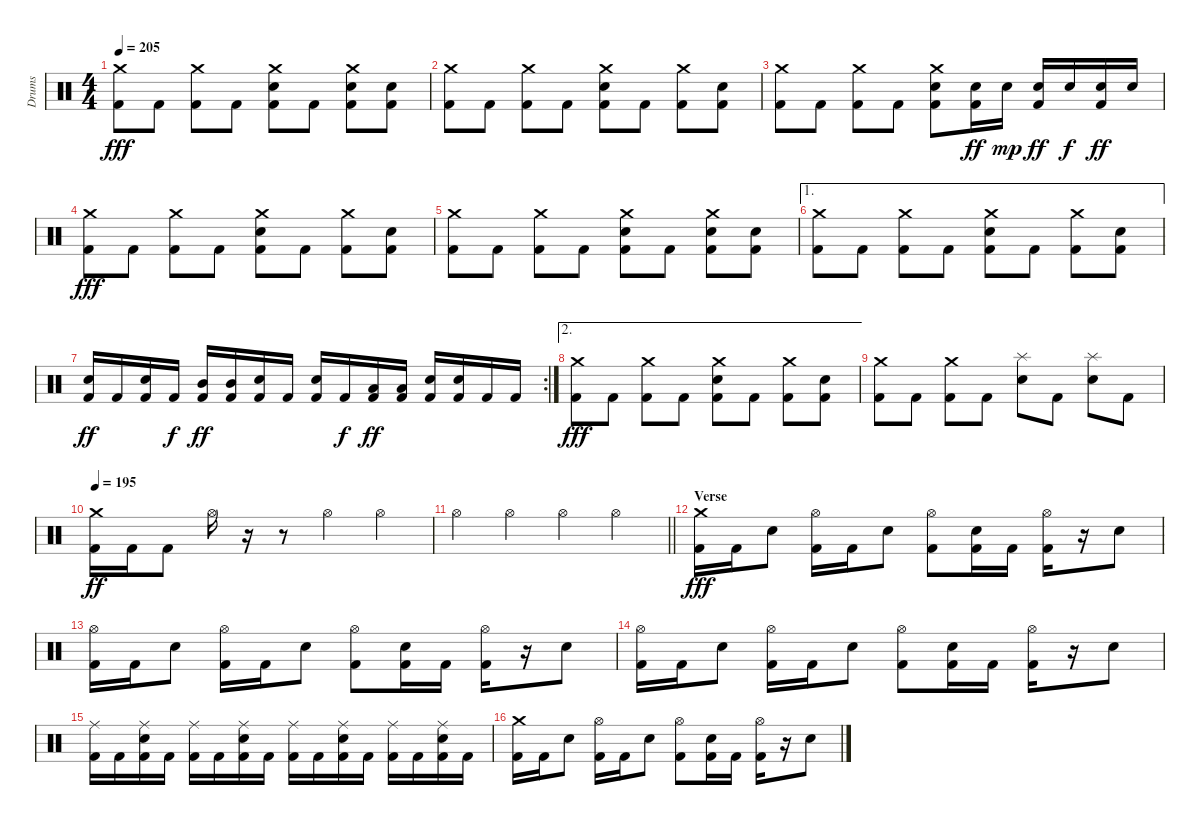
\track ("Drums" "Drums") {instrument percussion}
\staff {score}
\articulation defaults
\ts (4 4)
\tempo 205
\clef neutral
\ks c
("Crash medium (hit)" "Kick (hit) 2").8{dy fff} "Kick (hit) 2".8 ("Crash medium (hit)" "Kick (hit) 2").8 "Kick (hit) 2".8 ("Crash medium (hit)" "Electric Snare (hit)" "Kick (hit) 2").8 "Kick (hit) 2".8 ("Crash medium (hit)" "Electric Snare (hit)" "Kick (hit) 2").8 ("Electric Snare (hit)" "Kick (hit) 2").8 |
("Crash medium (hit)" "Kick (hit) 2").8 "Kick (hit) 2".8 ("Crash medium (hit)" "Kick (hit) 2").8 "Kick (hit) 2".8 ("Crash medium (hit)" "Electric Snare (hit)" "Kick (hit) 2").8 "Kick (hit) 2".8 ("Crash medium (hit)" "Kick (hit) 2").8 ("Electric Snare (hit)" "Kick (hit) 2").8 |
("Crash medium (hit)" "Kick (hit) 2").8 "Kick (hit) 2".8 ("Crash medium (hit)" "Kick (hit) 2").8 "Kick (hit) 2".8 ("Crash medium (hit)" "Electric Snare (hit)" "Kick (hit) 2").8 ("Electric Snare (hit)" "Kick (hit) 2").16{dy ff} "Electric Snare (hit)".16{dy mp} ("Electric Snare (hit)" "Kick (hit) 2").16{dy ff} "Electric Snare (hit)".16{dy f} ("Electric Snare (hit)" "Kick (hit) 2").16{dy ff} "Electric Snare (hit)".16 |
("Crash medium (hit)" "Kick (hit) 2").8{dy fff} "Kick (hit) 2".8 ("Crash medium (hit)" "Kick (hit) 2").8 "Kick (hit) 2".8 ("Crash medium (hit)" "Electric Snare (hit)" "Kick (hit) 2").8 "Kick (hit) 2".8 ("Crash medium (hit)" "Kick (hit) 2").8 ("Electric Snare (hit)" "Kick (hit) 2").8 |
("Crash medium (hit)" "Kick (hit) 2").8 "Kick (hit) 2".8 ("Crash medium (hit)" "Kick (hit) 2").8 "Kick (hit) 2".8 ("Crash medium (hit)" "Electric Snare (hit)" "Kick (hit) 2").8 "Kick (hit) 2".8 ("Crash medium (hit)" "Electric Snare (hit)" "Kick (hit) 2").8 ("Electric Snare (hit)" "Kick (hit) 2").8 |
\ae 1
("Crash medium (hit)" "Kick (hit) 2").8 "Kick (hit) 2".8 ("Crash medium (hit)" "Kick (hit) 2").8 "Kick (hit) 2".8 ("Crash medium (hit)" "Electric Snare (hit)" "Kick (hit) 2").8 "Kick (hit) 2".8 ("Crash medium (hit)" "Kick (hit) 2").8 ("Electric Snare (hit)" "Kick (hit) 2").8 |
\rc 2
("Electric Snare (hit)" "Kick (hit) 2").16{dy ff} "Kick (hit) 2".16 ("Electric Snare (hit)" "Kick (hit) 2").16 "Kick (hit) 2".16{dy f} ("Mid Tom (hit)" "Kick (hit) 2").16{dy ff} ("Mid Tom (hit)" "Kick (hit) 2").16 ("Electric Snare (hit)" "Kick (hit) 2").16 "Kick (hit) 2".16 ("Electric Snare (hit)" "Kick (hit) 2").16 "Kick (hit) 2".16{dy f} ("Low Tom (hit)" "Kick (hit) 2").16{dy ff} ("Low Tom (hit)" "Kick (hit) 2").16 ("Electric Snare (hit)" "Kick (hit) 2").16 ("Electric Snare (hit)" "Kick (hit) 2").16 "Kick (hit) 2".16 "Kick (hit) 2".16 |
\ae 2
("Crash medium (hit)" "Kick (hit) 2").8{dy fff} "Kick (hit) 2".8 ("Crash medium (hit)" "Kick (hit) 2").8 "Kick (hit) 2".8 ("Crash medium (hit)" "Electric Snare (hit)" "Kick (hit) 2").8 "Kick (hit) 2".8 ("Crash medium (hit)" "Kick (hit) 2").8 ("Electric Snare (hit)" "Kick (hit) 2").8 |
("Crash medium (hit)" "Kick (hit) 2").8 "Kick (hit) 2".8 ("Crash medium (hit)" "Kick (hit) 2").8 "Kick (hit) 2".8 ("Splash (hit)" "Electric Snare (hit)").8 "Kick (hit) 2".8 ("Splash (hit)" "Electric Snare (hit)").8 "Kick (hit) 2".8 |
\tempo 195
("Crash medium (hit)" "Kick (hit) 2").16{dy ff} "Kick (hit) 2".16 "Kick (hit) 2".8 "Hi-Hat (open)".16 r.16 r.8 "Hi-Hat (open)".4 "Hi-Hat (open)".4 |
\barLineRight lightlight "Hi-Hat (open)".4 "Hi-Hat (open)".4 "Hi-Hat (open)".4 "Hi-Hat (open)".4
|
\section ("" "Verse")
("Crash medium (hit)" "Kick (hit) 2").16{dy fff} "Kick (hit) 2".16 "Electric Snare (hit)".8 ("Hi-Hat (open)" "Kick (hit) 2").16 "Kick (hit) 2".16 "Electric Snare (hit)".8 ("Hi-Hat (open)" "Kick (hit) 2").8 ("Electric Snare (hit)" "Kick (hit) 2").16 "Kick (hit) 2".16 ("Hi-Hat (open)" "Kick (hit) 2").16 r.16 "Electric Snare (hit)".8 |
("Hi-Hat (open)" "Kick (hit) 2").16 "Kick (hit) 2".16 "Electric Snare (hit)".8 ("Hi-Hat (open)" "Kick (hit) 2").16 "Kick (hit) 2".16 "Electric Snare (hit)".8 ("Hi-Hat (open)" "Kick (hit) 2").8 ("Electric Snare (hit)" "Kick (hit) 2").16 "Kick (hit) 2".16 ("Hi-Hat (open)" "Kick (hit) 2").16 r.16 "Electric Snare (hit)".8 |
("Hi-Hat (open)" "Kick (hit) 2").16 "Kick (hit) 2".16 "Electric Snare (hit)".8 ("Hi-Hat (open)" "Kick (hit) 2").16 "Kick (hit) 2".16 "Electric Snare (hit)".8 ("Hi-Hat (open)" "Kick (hit) 2").8 ("Electric Snare (hit)" "Kick (hit) 2").16 "Kick (hit) 2".16 ("Hi-Hat (open)" "Kick (hit) 2").16 r.16 "Electric Snare (hit)".8 |
("Ride (middle)" "Kick (hit) 2").16 "Kick (hit) 2".16 ("Ride (middle)" "Electric Snare (hit)" "Kick (hit) 2").16 "Kick (hit) 2".16 ("Ride (middle)" "Kick (hit) 2").16 "Kick (hit) 2".16 ("Ride (middle)" "Electric Snare (hit)" "Kick (hit) 2").16 "Kick (hit) 2".16 ("Ride (middle)" "Kick (hit) 2").16 "Kick (hit) 2".16 ("Ride (middle)" "Electric Snare (hit)" "Kick (hit) 2").16 "Kick (hit) 2".16 ("Ride (middle)" "Kick (hit) 2").16 "Kick (hit) 2".16 ("Ride (middle)" "Electric Snare (hit)" "Kick (hit) 2").16 "Kick (hit) 2".16 |
("Crash medium (hit)" "Kick (hit) 2").16 "Kick (hit) 2".16 "Electric Snare (hit)".8 ("Hi-Hat (open)" "Kick (hit) 2").16 "Kick (hit) 2".16 "Electric Snare (hit)".8 ("Hi-Hat (open)" "Kick (hit) 2").8 ("Electric Snare (hit)" "Kick (hit) 2").16 "Kick (hit) 2".16 ("Hi-Hat (open)" "Kick (hit) 2").16 r.16 "Electric Snare (hit)".8
